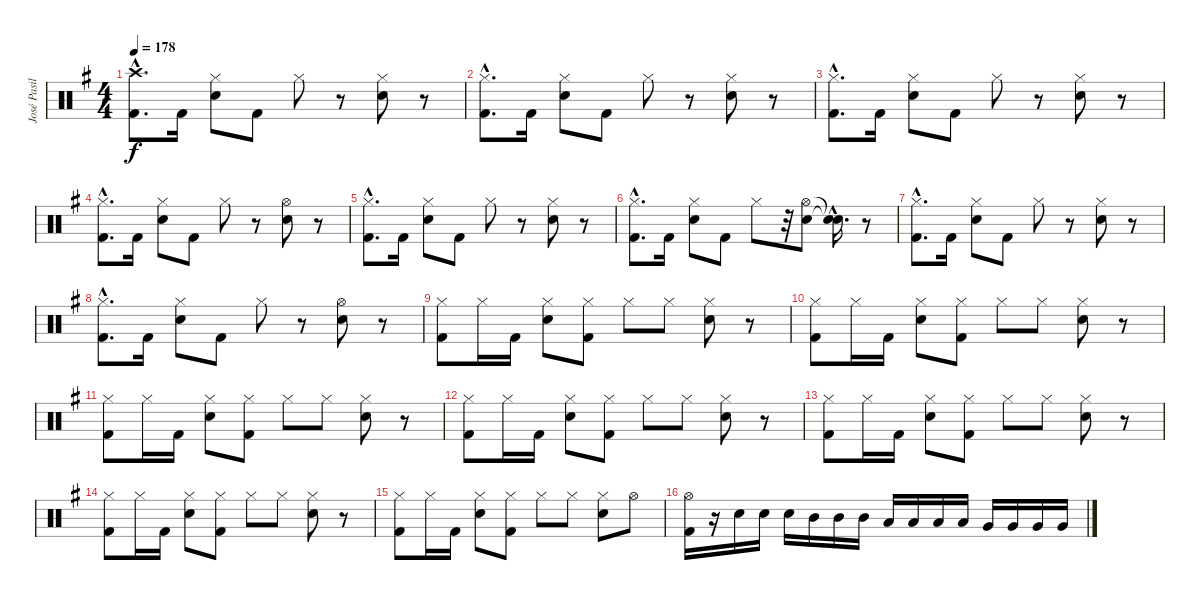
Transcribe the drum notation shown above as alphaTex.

\track ("José Pasillas [Drums]" "José Pasil") {instrument percussion}
\staff {score}
\articulation defaults
\ts (4 4)
\tempo 178
\clef neutral
\ks g
("Kick (hit) 2"{hac} "Crash high (hit)"{hac}).8{d dy f} "Kick (hit) 2".16 ("Electric Snare (hit)" "Hi-Hat (closed)").8 "Kick (hit) 2".8 "Hi-Hat (closed)".8 r.8 ("Electric Snare (hit)" "Hi-Hat (closed)").8 r.8 |
("Kick (hit) 2"{hac} "Hi-Hat (closed)"{hac}).8{d} "Kick (hit) 2".16 ("Electric Snare (hit)" "Hi-Hat (closed)").8 "Kick (hit) 2".8 "Hi-Hat (closed)".8 r.8 ("Electric Snare (hit)" "Hi-Hat (closed)").8 r.8 |
("Kick (hit) 2"{hac} "Hi-Hat (closed)"{hac}).8{d} "Kick (hit) 2".16 ("Electric Snare (hit)" "Hi-Hat (closed)").8 "Kick (hit) 2".8 "Hi-Hat (closed)".8 r.8 ("Electric Snare (hit)" "Hi-Hat (closed)").8 r.8 |
("Kick (hit) 2"{hac} "Hi-Hat (closed)"{hac}).8{d} "Kick (hit) 2".16 ("Electric Snare (hit)" "Hi-Hat (closed)").8 "Kick (hit) 2".8 "Hi-Hat (closed)".8 r.8 ("Electric Snare (hit)" "Hi-Hat (open)").8 r.8 |
("Kick (hit) 2"{hac} "Hi-Hat (closed)"{hac}).8{d} "Kick (hit) 2".16 ("Electric Snare (hit)" "Hi-Hat (closed)").8 "Kick (hit) 2".8 "Hi-Hat (closed)".8 r.8 ("Electric Snare (hit)" "Hi-Hat (closed)").8 r.8 |
("Kick (hit) 2"{hac} "Hi-Hat (closed)"{hac}).8{d} "Kick (hit) 2".16 ("Electric Snare (hit)" "Hi-Hat (closed)").8 "Kick (hit) 2".8 "Hi-Hat (closed)".8 r.32 ("Electric Snare (hit)" "Hi-Hat (open)").8 ("Snare (hit)"{hac t} "Snare (hit)"{hac t}).16{d} r.8 |
("Kick (hit) 2"{hac} "Hi-Hat (closed)"{hac}).8{d} "Kick (hit) 2".16 ("Electric Snare (hit)" "Hi-Hat (closed)").8 "Kick (hit) 2".8 "Hi-Hat (closed)".8 r.8 ("Electric Snare (hit)" "Hi-Hat (closed)").8 r.8 |
("Kick (hit) 2"{hac} "Hi-Hat (closed)"{hac}).8{d} "Kick (hit) 2".16 ("Electric Snare (hit)" "Hi-Hat (closed)").8 "Kick (hit) 2".8 "Hi-Hat (closed)".8 r.8 ("Electric Snare (hit)" "Hi-Hat (open)").8 r.8 |
("Kick (hit) 2" "Hi-Hat (closed)").8 "Hi-Hat (closed)".16 "Kick (hit) 2".16 ("Electric Snare (hit)" "Hi-Hat (closed)").8 ("Kick (hit) 2" "Hi-Hat (closed)").8 "Hi-Hat (closed)".8 "Hi-Hat (closed)".8 ("Electric Snare (hit)" "Hi-Hat (closed)").8 r.8 |
("Kick (hit) 2" "Hi-Hat (closed)").8 "Hi-Hat (closed)".16 "Kick (hit) 2".16 ("Electric Snare (hit)" "Hi-Hat (closed)").8 ("Kick (hit) 2" "Hi-Hat (closed)").8 "Hi-Hat (closed)".8 "Hi-Hat (closed)".8 ("Electric Snare (hit)" "Hi-Hat (closed)").8 r.8 |
("Kick (hit) 2" "Hi-Hat (closed)").8 "Hi-Hat (closed)".16 "Kick (hit) 2".16 ("Electric Snare (hit)" "Hi-Hat (closed)").8 ("Kick (hit) 2" "Hi-Hat (closed)").8 "Hi-Hat (closed)".8 "Hi-Hat (closed)".8 ("Electric Snare (hit)" "Hi-Hat (closed)").8 r.8 |
("Kick (hit) 2" "Hi-Hat (closed)").8 "Hi-Hat (closed)".16 "Kick (hit) 2".16 ("Electric Snare (hit)" "Hi-Hat (closed)").8 ("Kick (hit) 2" "Hi-Hat (closed)").8 "Hi-Hat (closed)".8 "Hi-Hat (closed)".8 ("Electric Snare (hit)" "Hi-Hat (closed)").8 r.8 |
("Kick (hit) 2" "Hi-Hat (closed)").8 "Hi-Hat (closed)".16 "Kick (hit) 2".16 ("Electric Snare (hit)" "Hi-Hat (closed)").8 ("Kick (hit) 2" "Hi-Hat (closed)").8 "Hi-Hat (closed)".8 "Hi-Hat (closed)".8 ("Electric Snare (hit)" "Hi-Hat (closed)").8 r.8 |
("Kick (hit) 2" "Hi-Hat (closed)").8 "Hi-Hat (closed)".16 "Kick (hit) 2".16 ("Electric Snare (hit)" "Hi-Hat (closed)").8 ("Kick (hit) 2" "Hi-Hat (closed)").8 "Hi-Hat (closed)".8 "Hi-Hat (closed)".8 ("Electric Snare (hit)" "Hi-Hat (closed)").8 r.8 |
("Kick (hit) 2" "Hi-Hat (closed)").8 "Hi-Hat (closed)".16 "Kick (hit) 2".16 ("Electric Snare (hit)" "Hi-Hat (closed)").8 ("Kick (hit) 2" "Hi-Hat (closed)").8 "Hi-Hat (closed)".8 "Hi-Hat (closed)".8 ("Electric Snare (hit)" "Hi-Hat (closed)").8 "Hi-Hat (open)".8 |
("Kick (hit) 2" "Hi-Hat (open)").16 r.16 "Electric Snare (hit)".16 "Electric Snare (hit)".16 "Electric Snare (hit)".16 "Mid Tom (hit)".16 "Mid Tom (hit)".16 "Mid Tom (hit)".16 "Low Tom (hit)".16 "Low Tom (hit)".16 "Low Tom (hit)".16 "Low Tom (hit)".16 "Very Low Tom (hit)".16 "Very Low Tom (hit)".16 "Very Low Tom (hit)".16 "Very Low Tom (hit)".16
